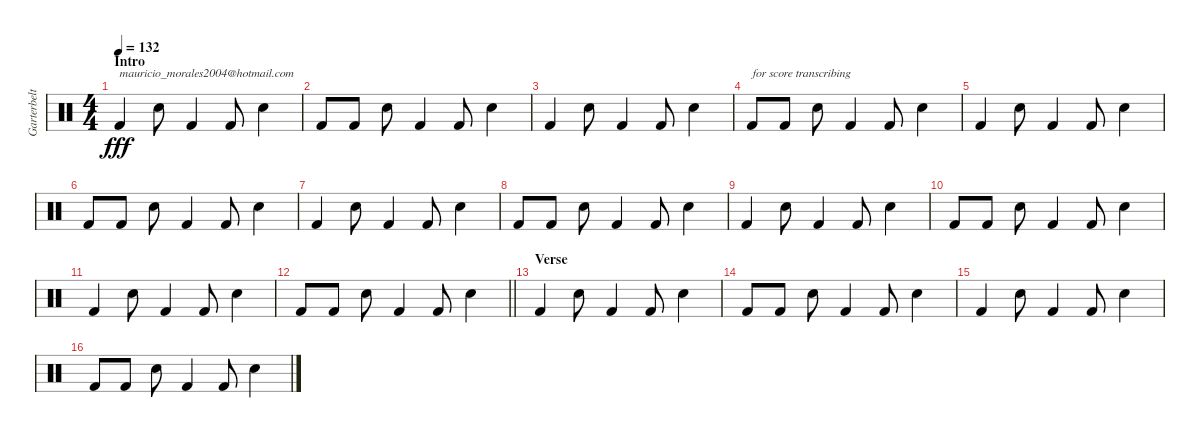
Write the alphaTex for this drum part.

\track ("Garterbelt" "Garterbelt") {instrument percussion}
\staff {score}
\articulation defaults
\ts (4 4)
\section ("" "Intro")
\tempo 132
\clef neutral
\ks c "Kick (hit) 2".4{txt "mauricio_morales2004@hotmail.com" dy fff} "Hand Clap (hit)".8 "Kick (hit) 2".4 "Kick (hit) 2".8 "Hand Clap (hit)".4
|
"Kick (hit) 2".8 "Kick (hit) 2".8 "Hand Clap (hit)".8 "Kick (hit) 2".4 "Kick (hit) 2".8 "Hand Clap (hit)".4 |
"Kick (hit) 2".4 "Hand Clap (hit)".8 "Kick (hit) 2".4 "Kick (hit) 2".8 "Hand Clap (hit)".4 |
"Kick (hit) 2".8{txt "for score transcribing"} "Kick (hit) 2".8 "Hand Clap (hit)".8 "Kick (hit) 2".4 "Kick (hit) 2".8 "Hand Clap (hit)".4 |
"Kick (hit) 2".4 "Hand Clap (hit)".8 "Kick (hit) 2".4 "Kick (hit) 2".8 "Hand Clap (hit)".4 |
"Kick (hit) 2".8 "Kick (hit) 2".8 "Hand Clap (hit)".8 "Kick (hit) 2".4 "Kick (hit) 2".8 "Hand Clap (hit)".4 |
"Kick (hit) 2".4 "Hand Clap (hit)".8 "Kick (hit) 2".4 "Kick (hit) 2".8 "Hand Clap (hit)".4 |
"Kick (hit) 2".8 "Kick (hit) 2".8 "Hand Clap (hit)".8 "Kick (hit) 2".4 "Kick (hit) 2".8 "Hand Clap (hit)".4 |
"Kick (hit) 2".4 "Hand Clap (hit)".8 "Kick (hit) 2".4 "Kick (hit) 2".8 "Hand Clap (hit)".4 |
"Kick (hit) 2".8 "Kick (hit) 2".8 "Hand Clap (hit)".8 "Kick (hit) 2".4 "Kick (hit) 2".8 "Hand Clap (hit)".4 |
"Kick (hit) 2".4 "Hand Clap (hit)".8 "Kick (hit) 2".4 "Kick (hit) 2".8 "Hand Clap (hit)".4 |
\barLineRight lightlight "Kick (hit) 2".8 "Kick (hit) 2".8 "Hand Clap (hit)".8 "Kick (hit) 2".4 "Kick (hit) 2".8 "Hand Clap (hit)".4
|
\section ("" "Verse")
"Kick (hit) 2".4 "Hand Clap (hit)".8 "Kick (hit) 2".4 "Kick (hit) 2".8 "Hand Clap (hit)".4 |
"Kick (hit) 2".8 "Kick (hit) 2".8 "Hand Clap (hit)".8 "Kick (hit) 2".4 "Kick (hit) 2".8 "Hand Clap (hit)".4 |
"Kick (hit) 2".4 "Hand Clap (hit)".8 "Kick (hit) 2".4 "Kick (hit) 2".8 "Hand Clap (hit)".4 |
"Kick (hit) 2".8 "Kick (hit) 2".8 "Hand Clap (hit)".8 "Kick (hit) 2".4 "Kick (hit) 2".8 "Hand Clap (hit)".4
